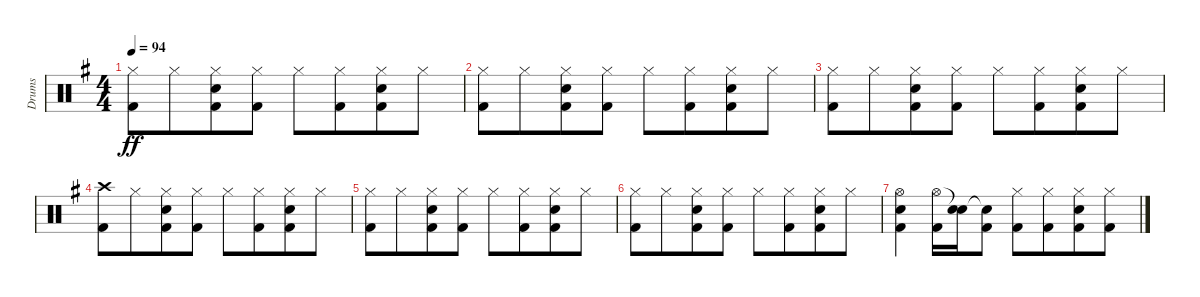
\track ("Drums" "Drums") {instrument percussion}
\staff {score}
\articulation defaults
\ts (4 4)
\tempo 94
\clef neutral
\ks g
("Hi-Hat (closed)" "Kick (hit) 2").8{dy ff} "Hi-Hat (closed)".8{beam merge} ("Hi-Hat (closed)" "Electric Snare (hit)" "Kick (hit) 2").8 ("Hi-Hat (closed)" "Kick (hit) 2").8 "Hi-Hat (closed)".8 ("Hi-Hat (closed)" "Kick (hit) 2").8{beam merge} ("Hi-Hat (closed)" "Electric Snare (hit)" "Kick (hit) 2").8 "Hi-Hat (closed)".8 |
("Hi-Hat (closed)" "Kick (hit) 2").8 "Hi-Hat (closed)".8{beam merge} ("Hi-Hat (closed)" "Electric Snare (hit)" "Kick (hit) 2").8 ("Hi-Hat (closed)" "Kick (hit) 2").8 "Hi-Hat (closed)".8 ("Hi-Hat (closed)" "Kick (hit) 2").8{beam merge} ("Hi-Hat (closed)" "Electric Snare (hit)" "Kick (hit) 2").8 "Hi-Hat (closed)".8 |
("Hi-Hat (closed)" "Kick (hit) 2").8 "Hi-Hat (closed)".8{beam merge} ("Hi-Hat (closed)" "Electric Snare (hit)" "Kick (hit) 2").8 ("Hi-Hat (closed)" "Kick (hit) 2").8 "Hi-Hat (closed)".8 ("Hi-Hat (closed)" "Kick (hit) 2").8{beam merge} ("Hi-Hat (closed)" "Electric Snare (hit)" "Kick (hit) 2").8 "Hi-Hat (closed)".8 |
("Crash high (hit)" "Kick (hit) 2").8 "Hi-Hat (closed)".8{beam merge} ("Hi-Hat (closed)" "Electric Snare (hit)" "Kick (hit) 2").8 ("Hi-Hat (closed)" "Kick (hit) 2").8 "Hi-Hat (closed)".8 ("Hi-Hat (closed)" "Kick (hit) 2").8{beam merge} ("Hi-Hat (closed)" "Electric Snare (hit)" "Kick (hit) 2").8 "Hi-Hat (closed)".8 |
("Hi-Hat (closed)" "Kick (hit) 2").8 "Hi-Hat (closed)".8{beam merge} ("Hi-Hat (closed)" "Electric Snare (hit)" "Kick (hit) 2").8 ("Hi-Hat (closed)" "Kick (hit) 2").8 "Hi-Hat (closed)".8 ("Hi-Hat (closed)" "Kick (hit) 2").8{beam merge} ("Hi-Hat (closed)" "Electric Snare (hit)" "Kick (hit) 2").8 "Hi-Hat (closed)".8 |
("Hi-Hat (closed)" "Kick (hit) 2").8 "Hi-Hat (closed)".8{beam merge} ("Hi-Hat (closed)" "Electric Snare (hit)" "Kick (hit) 2").8 ("Hi-Hat (closed)" "Kick (hit) 2").8 "Hi-Hat (closed)".8 ("Hi-Hat (closed)" "Kick (hit) 2").8{beam merge} ("Hi-Hat (closed)" "Electric Snare (hit)" "Kick (hit) 2").8 "Hi-Hat (closed)".8 |
("Hi-Hat (open)" "Electric Snare (hit)" "Kick (hit) 2").4 ("Hi-Hat (open)" "Kick (hit) 2").16 ("Snare (hit)"{t} "Electric Snare (hit)").16 ("Snare (hit)"{t} "Kick (hit) 2").8 ("Hi-Hat (closed)" "Kick (hit) 2").8 ("Hi-Hat (closed)" "Kick (hit) 2").8{beam merge} ("Hi-Hat (closed)" "Electric Snare (hit)" "Kick (hit) 2").8 ("Hi-Hat (closed)" "Kick (hit) 2").8
